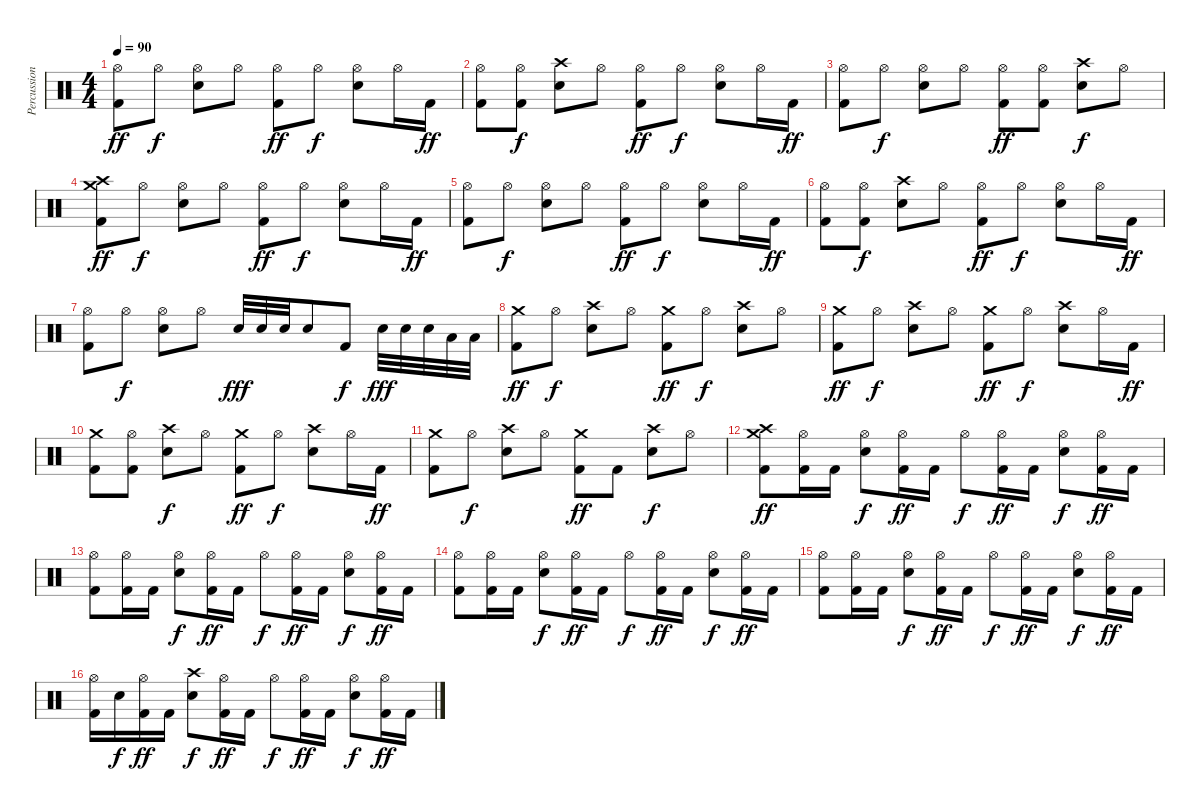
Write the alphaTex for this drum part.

\track ("Percussion" "Percussion") {instrument percussion}
\staff {score}
\articulation defaults
\ts (4 4)
\tempo 90
\clef neutral
\ks c
("Hi-Hat (open)" "Kick (hit) 2").8{dy ff} "Hi-Hat (open)".8{dy f} ("Hi-Hat (open)" "Electric Snare (hit)").8 "Hi-Hat (open)".8 ("Hi-Hat (open)" "Kick (hit) 2").8{dy ff} "Hi-Hat (open)".8{dy f} ("Hi-Hat (open)" "Electric Snare (hit)").8 "Hi-Hat (open)".16 "Kick (hit) 2".16{dy ff} |
("Hi-Hat (open)" "Kick (hit) 2").8 ("Hi-Hat (open)" "Kick (hit) 2").8{dy f} ("Crash high (hit)" "Electric Snare (hit)").8 "Hi-Hat (open)".8 ("Hi-Hat (open)" "Kick (hit) 2").8{dy ff} "Hi-Hat (open)".8{dy f} ("Hi-Hat (open)" "Electric Snare (hit)").8 "Hi-Hat (open)".16 "Kick (hit) 2".16{dy ff} |
("Hi-Hat (open)" "Kick (hit) 2").8 "Hi-Hat (open)".8{dy f} ("Hi-Hat (open)" "Electric Snare (hit)").8 "Hi-Hat (open)".8 ("Hi-Hat (open)" "Kick (hit) 2").8{dy ff} ("Hi-Hat (open)" "Kick (hit) 2").8 ("Crash high (hit)" "Electric Snare (hit)").8{dy f} "Hi-Hat (open)".8 |
("Crash medium (hit)" "Crash high (hit)" "Kick (hit) 2").8{dy ff} "Hi-Hat (open)".8{dy f} ("Hi-Hat (open)" "Electric Snare (hit)").8 "Hi-Hat (open)".8 ("Hi-Hat (open)" "Kick (hit) 2").8{dy ff} "Hi-Hat (open)".8{dy f} ("Hi-Hat (open)" "Electric Snare (hit)").8 "Hi-Hat (open)".16 "Kick (hit) 2".16{dy ff} |
("Hi-Hat (open)" "Kick (hit) 2").8 "Hi-Hat (open)".8{dy f} ("Hi-Hat (open)" "Electric Snare (hit)").8 "Hi-Hat (open)".8 ("Hi-Hat (open)" "Kick (hit) 2").8{dy ff} "Hi-Hat (open)".8{dy f} ("Hi-Hat (open)" "Electric Snare (hit)").8 "Hi-Hat (open)".16 "Kick (hit) 2".16{dy ff} |
("Hi-Hat (open)" "Kick (hit) 2").8 ("Hi-Hat (open)" "Kick (hit) 2").8{dy f} ("Crash high (hit)" "Electric Snare (hit)").8 "Hi-Hat (open)".8 ("Hi-Hat (open)" "Kick (hit) 2").8{dy ff} "Hi-Hat (open)".8{dy f} ("Hi-Hat (open)" "Electric Snare (hit)").8 "Hi-Hat (open)".16 "Kick (hit) 2".16{dy ff} |
("Hi-Hat (open)" "Kick (hit) 2").8 "Hi-Hat (open)".8{dy f} ("Hi-Hat (open)" "Electric Snare (hit)").8 "Hi-Hat (open)".8 "Electric Snare (hit)".32{dy fff} "Electric Snare (hit)".32 "Electric Snare (hit)".32 "Electric Snare (hit)".8 "Kick (hit) 2".8{dy f} "Electric Snare (hit)".32{dy fff} "Electric Snare (hit)".32 "Electric Snare (hit)".32 "Low Tom (hit)".32 "Low Floor Tom (hit)".32 |
("Crash medium (hit)" "Kick (hit) 2").8{dy ff} "Hi-Hat (open)".8{dy f} ("Crash high (hit)" "Electric Snare (hit)").8 "Hi-Hat (open)".8 ("Crash medium (hit)" "Kick (hit) 2").8{dy ff} "Hi-Hat (open)".8{dy f} ("Crash high (hit)" "Electric Snare (hit)").8 "Hi-Hat (open)".8 |
("Crash medium (hit)" "Kick (hit) 2").8{dy ff} "Hi-Hat (open)".8{dy f} ("Crash high (hit)" "Electric Snare (hit)").8 "Hi-Hat (open)".8 ("Crash medium (hit)" "Kick (hit) 2").8{dy ff} "Hi-Hat (open)".8{dy f} ("Crash high (hit)" "Electric Snare (hit)").8 "Hi-Hat (open)".16 "Kick (hit) 2".16{dy ff} |
("Crash medium (hit)" "Kick (hit) 2").8 ("Hi-Hat (open)" "Kick (hit) 2").8 ("Crash high (hit)" "Electric Snare (hit)").8{dy f} "Hi-Hat (open)".8 ("Crash medium (hit)" "Kick (hit) 2").8{dy ff} "Hi-Hat (open)".8{dy f} ("Crash high (hit)" "Electric Snare (hit)").8 "Hi-Hat (open)".16 "Kick (hit) 2".16{dy ff} |
("Crash medium (hit)" "Kick (hit) 2").8 "Hi-Hat (open)".8{dy f} ("Crash high (hit)" "Electric Snare (hit)").8 "Hi-Hat (open)".8 ("Crash medium (hit)" "Kick (hit) 2").8{dy ff} "Kick (hit) 2".8 ("Crash high (hit)" "Electric Snare (hit)").8{dy f} "Hi-Hat (open)".8 |
("Crash medium (hit)" "Crash high (hit)" "Kick (hit) 2").8{dy ff} ("Hi-Hat (open)" "Kick (hit) 2").16 "Kick (hit) 2".16 ("Hi-Hat (open)" "Electric Snare (hit)").8{dy f} ("Hi-Hat (open)" "Kick (hit) 2").16{dy ff} "Kick (hit) 2".16 "Hi-Hat (open)".8{dy f} ("Hi-Hat (open)" "Kick (hit) 2").16{dy ff} "Kick (hit) 2".16 ("Hi-Hat (open)" "Electric Snare (hit)").8{dy f} ("Hi-Hat (open)" "Kick (hit) 2").16{dy ff} "Kick (hit) 2".16 |
("Hi-Hat (open)" "Kick (hit) 2").8 ("Hi-Hat (open)" "Kick (hit) 2").16 "Kick (hit) 2".16 ("Hi-Hat (open)" "Electric Snare (hit)").8{dy f} ("Hi-Hat (open)" "Kick (hit) 2").16{dy ff} "Kick (hit) 2".16 "Hi-Hat (open)".8{dy f} ("Hi-Hat (open)" "Kick (hit) 2").16{dy ff} "Kick (hit) 2".16 ("Hi-Hat (open)" "Electric Snare (hit)").8{dy f} ("Hi-Hat (open)" "Kick (hit) 2").16{dy ff} "Kick (hit) 2".16 |
("Hi-Hat (open)" "Kick (hit) 2").8 ("Hi-Hat (open)" "Kick (hit) 2").16 "Kick (hit) 2".16 ("Hi-Hat (open)" "Electric Snare (hit)").8{dy f} ("Hi-Hat (open)" "Kick (hit) 2").16{dy ff} "Kick (hit) 2".16 "Hi-Hat (open)".8{dy f} ("Hi-Hat (open)" "Kick (hit) 2").16{dy ff} "Kick (hit) 2".16 ("Hi-Hat (open)" "Electric Snare (hit)").8{dy f} ("Hi-Hat (open)" "Kick (hit) 2").16{dy ff} "Kick (hit) 2".16 |
("Hi-Hat (open)" "Kick (hit) 2").8 ("Hi-Hat (open)" "Kick (hit) 2").16 "Kick (hit) 2".16 ("Hi-Hat (open)" "Electric Snare (hit)").8{dy f} ("Hi-Hat (open)" "Kick (hit) 2").16{dy ff} "Kick (hit) 2".16 "Hi-Hat (open)".8{dy f} ("Hi-Hat (open)" "Kick (hit) 2").16{dy ff} "Kick (hit) 2".16 ("Hi-Hat (open)" "Electric Snare (hit)").8{dy f} ("Hi-Hat (open)" "Kick (hit) 2").16{dy ff} "Kick (hit) 2".16 |
("Hi-Hat (open)" "Kick (hit) 2").16 "Electric Snare (hit)".16{dy f} ("Hi-Hat (open)" "Kick (hit) 2").16{dy ff} "Kick (hit) 2".16 ("Crash high (hit)" "Electric Snare (hit)").8{dy f} ("Hi-Hat (open)" "Kick (hit) 2").16{dy ff} "Kick (hit) 2".16 "Hi-Hat (open)".8{dy f} ("Hi-Hat (open)" "Kick (hit) 2").16{dy ff} "Kick (hit) 2".16 ("Hi-Hat (open)" "Electric Snare (hit)").8{dy f} ("Hi-Hat (open)" "Kick (hit) 2").16{dy ff} "Kick (hit) 2".16
